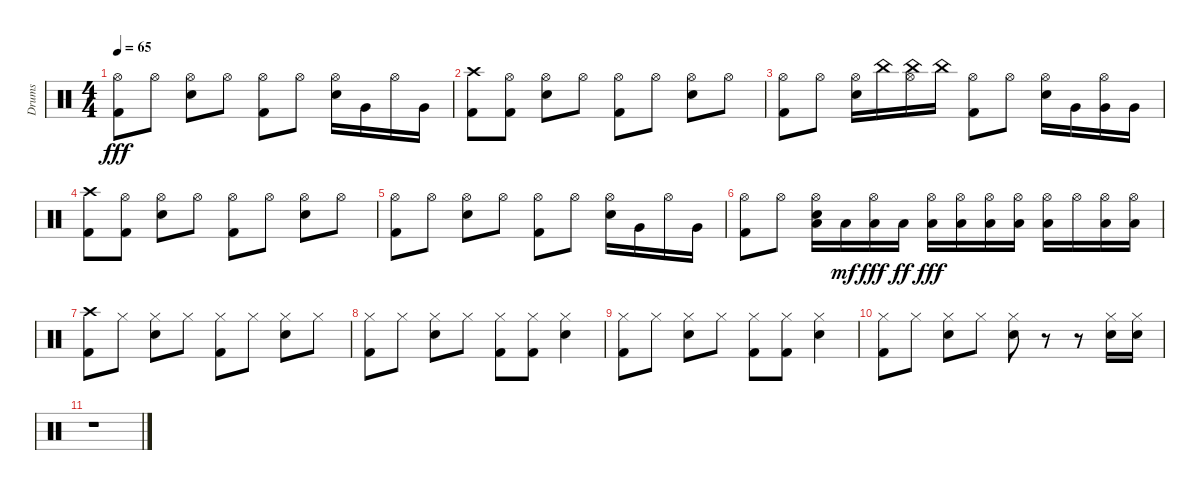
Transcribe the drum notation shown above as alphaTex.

\track ("Drums" "Drums") {instrument percussion}
\staff {score}
\articulation defaults
\ts (4 4)
\tempo 65
\clef neutral
\ks c
("Hi-Hat (open)" "Kick (hit) 2").8{dy fff} "Hi-Hat (open)".8 ("Hi-Hat (open)" "Snare (hit) 2").8 "Hi-Hat (open)".8 ("Hi-Hat (open)" "Kick (hit) 2").8 "Hi-Hat (open)".8 ("Hi-Hat (open)" "Snare (hit) 2").16 "Very Low Tom (hit)".16 "Hi-Hat (open)".16 "Very Low Tom (hit)".16 |
("Crash high (hit)" "Kick (hit) 2").8 ("Hi-Hat (open)" "Kick (hit) 2").8 ("Hi-Hat (open)" "Snare (hit) 2").8 "Hi-Hat (open)".8 ("Hi-Hat (open)" "Kick (hit) 2").8 "Hi-Hat (open)".8 ("Hi-Hat (open)" "Snare (hit) 2").8 "Hi-Hat (open)".8 |
("Hi-Hat (open)" "Kick (hit) 2").8 "Hi-Hat (open)".8 ("Hi-Hat (open)" "Snare (hit) 2").16 "China (hit)".16 ("Hi-Hat (open)" "China (hit)").16 "China (hit)".16 ("Hi-Hat (open)" "Kick (hit) 2").8 "Hi-Hat (open)".8 ("Hi-Hat (open)" "Snare (hit) 2").16 "Very Low Tom (hit)".16 ("Hi-Hat (open)" "Very Low Tom (hit)").16 "Very Low Tom (hit)".16 |
("Crash high (hit)" "Kick (hit) 2").8 ("Hi-Hat (open)" "Kick (hit) 2").8 ("Hi-Hat (open)" "Snare (hit) 2").8 "Hi-Hat (open)".8 ("Hi-Hat (open)" "Kick (hit) 2").8 "Hi-Hat (open)".8 ("Hi-Hat (open)" "Snare (hit) 2").8 "Hi-Hat (open)".8 |
("Hi-Hat (open)" "Kick (hit) 2").8 "Hi-Hat (open)".8 ("Hi-Hat (open)" "Snare (hit) 2").8 "Hi-Hat (open)".8 ("Hi-Hat (open)" "Kick (hit) 2").8 "Hi-Hat (open)".8 ("Hi-Hat (open)" "Snare (hit) 2").16 "Very Low Tom (hit)".16 "Hi-Hat (open)".16 "Very Low Tom (hit)".16 |
("Hi-Hat (open)" "Kick (hit) 2").8 "Hi-Hat (open)".8 ("Hi-Hat (open)" "Low Tom (hit)" "Snare (hit) 2").16 "Low Tom (hit)".16{dy mf} ("Hi-Hat (open)" "Low Tom (hit)").16{dy fff} "Low Tom (hit)".16{dy ff} ("Hi-Hat (open)" "Low Tom (hit)").16{dy fff} ("Hi-Hat (open)" "Low Tom (hit)").16 ("Hi-Hat (open)" "Low Tom (hit)").16 ("Hi-Hat (open)" "Low Tom (hit)").16 ("Hi-Hat (open)" "Low Tom (hit)").16 "Hi-Hat (open)".16 ("Hi-Hat (open)" "Low Tom (hit)").16 ("Hi-Hat (open)" "Low Tom (hit)").16 |
("Crash high (hit)" "Kick (hit) 2").8 "Hi-Hat (closed)".8 ("Hi-Hat (closed)" "Snare (hit) 2").8 "Hi-Hat (closed)".8 ("Hi-Hat (closed)" "Kick (hit) 2").8 "Hi-Hat (closed)".8 ("Hi-Hat (closed)" "Snare (hit) 2").8 "Hi-Hat (closed)".8 |
("Hi-Hat (closed)" "Kick (hit) 2").8 "Hi-Hat (closed)".8 ("Hi-Hat (closed)" "Snare (hit) 2").8 "Hi-Hat (closed)".8 ("Hi-Hat (closed)" "Kick (hit) 2").8 ("Hi-Hat (closed)" "Kick (hit) 2").8 ("Hi-Hat (closed)" "Snare (hit) 2").4 |
("Hi-Hat (closed)" "Kick (hit) 2").8 "Hi-Hat (closed)".8 ("Hi-Hat (closed)" "Snare (hit) 2").8 "Hi-Hat (closed)".8 ("Hi-Hat (closed)" "Kick (hit) 2").8 ("Hi-Hat (closed)" "Kick (hit) 2").8 ("Hi-Hat (closed)" "Snare (hit) 2").4 |
("Hi-Hat (closed)" "Kick (hit) 2").8 "Hi-Hat (closed)".8 ("Hi-Hat (closed)" "Snare (hit) 2").8 "Hi-Hat (closed)".8 ("Hi-Hat (closed)" "Snare (hit) 2").8 r.8 r.8 ("Hi-Hat (closed)" "Snare (hit) 2").16 ("Hi-Hat (closed)" "Snare (hit) 2").16 |
r.1
